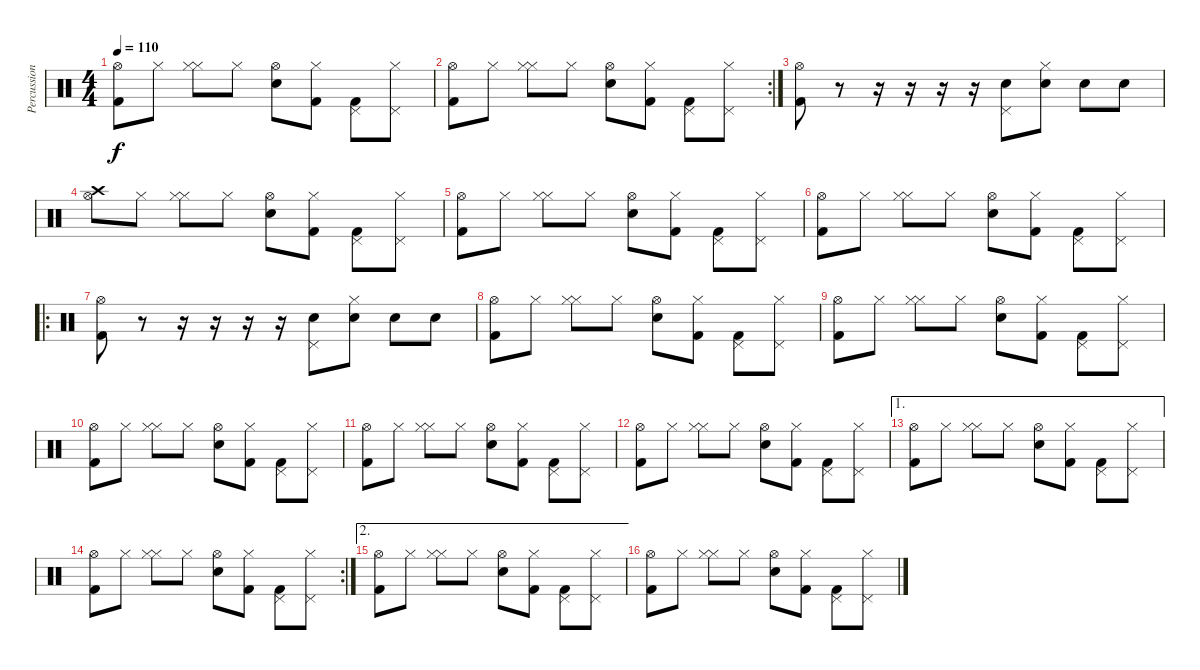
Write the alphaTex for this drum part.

\track ("Percussion" "Percussion") {instrument percussion}
\staff {score}
\articulation defaults
\ts (4 4)
\tempo 110
\clef neutral
\ks c
("Kick (hit) 2" "Hi-Hat (open)").8{dy f} "Hi-Hat (closed)".8 ("Hi-Hat (closed)" "Hi-Hat (closed)").8 "Hi-Hat (closed)".8 ("Snare (hit) 2" "Hi-Hat (open)").8 ("Kick (hit) 2" "Hi-Hat (closed)").8 ("Kick (hit) 2" "Pedal Hi-Hat (hit)").8 ("Pedal Hi-Hat (hit)" "Hi-Hat (closed)").8 |
\rc 2
("Kick (hit) 2" "Hi-Hat (open)").8 "Hi-Hat (closed)".8 ("Hi-Hat (closed)" "Hi-Hat (closed)").8 "Hi-Hat (closed)".8 ("Snare (hit) 2" "Hi-Hat (open)").8 ("Kick (hit) 2" "Hi-Hat (closed)").8 ("Kick (hit) 2" "Pedal Hi-Hat (hit)").8 ("Pedal Hi-Hat (hit)" "Hi-Hat (closed)").8 |
("Kick (hit) 2" "Hi-Hat (open)").8 r.8 r.16 r.16 r.16 r.16 ("Snare (hit) 2" "Pedal Hi-Hat (hit)").8 ("Snare (hit) 2" "Hi-Hat (closed)").8 "Snare (hit) 2".8 "Snare (hit) 2".8 |
("Crash high (hit)" "Hi-Hat (open)").8 "Hi-Hat (closed)".8 ("Hi-Hat (closed)" "Hi-Hat (closed)").8 "Hi-Hat (closed)".8 ("Snare (hit) 2" "Hi-Hat (open)").8 ("Kick (hit) 2" "Hi-Hat (closed)").8 ("Kick (hit) 2" "Pedal Hi-Hat (hit)").8 ("Pedal Hi-Hat (hit)" "Hi-Hat (closed)").8 |
("Kick (hit) 2" "Hi-Hat (open)").8 "Hi-Hat (closed)".8 ("Hi-Hat (closed)" "Hi-Hat (closed)").8 "Hi-Hat (closed)".8 ("Snare (hit) 2" "Hi-Hat (open)").8 ("Kick (hit) 2" "Hi-Hat (closed)").8 ("Kick (hit) 2" "Pedal Hi-Hat (hit)").8 ("Pedal Hi-Hat (hit)" "Hi-Hat (closed)").8 |
("Kick (hit) 2" "Hi-Hat (open)").8 "Hi-Hat (closed)".8 ("Hi-Hat (closed)" "Hi-Hat (closed)").8 "Hi-Hat (closed)".8 ("Snare (hit) 2" "Hi-Hat (open)").8 ("Kick (hit) 2" "Hi-Hat (closed)").8 ("Kick (hit) 2" "Pedal Hi-Hat (hit)").8 ("Pedal Hi-Hat (hit)" "Hi-Hat (closed)").8 |
\ro
("Kick (hit) 2" "Hi-Hat (open)").8 r.8 r.16 r.16 r.16 r.16 ("Snare (hit) 2" "Pedal Hi-Hat (hit)").8 ("Snare (hit) 2" "Hi-Hat (closed)").8 "Snare (hit) 2".8 "Snare (hit) 2".8 |
("Kick (hit) 2" "Hi-Hat (open)").8 "Hi-Hat (closed)".8 ("Hi-Hat (closed)" "Hi-Hat (closed)").8 "Hi-Hat (closed)".8 ("Snare (hit) 2" "Hi-Hat (open)").8 ("Kick (hit) 2" "Hi-Hat (closed)").8 ("Kick (hit) 2" "Pedal Hi-Hat (hit)").8 ("Pedal Hi-Hat (hit)" "Hi-Hat (closed)").8 |
("Kick (hit) 2" "Hi-Hat (open)").8 "Hi-Hat (closed)".8 ("Hi-Hat (closed)" "Hi-Hat (closed)").8 "Hi-Hat (closed)".8 ("Snare (hit) 2" "Hi-Hat (open)").8 ("Kick (hit) 2" "Hi-Hat (closed)").8 ("Kick (hit) 2" "Pedal Hi-Hat (hit)").8 ("Pedal Hi-Hat (hit)" "Hi-Hat (closed)").8 |
("Kick (hit) 2" "Hi-Hat (open)").8 "Hi-Hat (closed)".8 ("Hi-Hat (closed)" "Hi-Hat (closed)").8 "Hi-Hat (closed)".8 ("Snare (hit) 2" "Hi-Hat (open)").8 ("Kick (hit) 2" "Hi-Hat (closed)").8 ("Kick (hit) 2" "Pedal Hi-Hat (hit)").8 ("Pedal Hi-Hat (hit)" "Hi-Hat (closed)").8 |
("Kick (hit) 2" "Hi-Hat (open)").8 "Hi-Hat (closed)".8 ("Hi-Hat (closed)" "Hi-Hat (closed)").8 "Hi-Hat (closed)".8 ("Snare (hit) 2" "Hi-Hat (open)").8 ("Kick (hit) 2" "Hi-Hat (closed)").8 ("Kick (hit) 2" "Pedal Hi-Hat (hit)").8 ("Pedal Hi-Hat (hit)" "Hi-Hat (closed)").8 |
("Kick (hit) 2" "Hi-Hat (open)").8 "Hi-Hat (closed)".8 ("Hi-Hat (closed)" "Hi-Hat (closed)").8 "Hi-Hat (closed)".8 ("Snare (hit) 2" "Hi-Hat (open)").8 ("Kick (hit) 2" "Hi-Hat (closed)").8 ("Kick (hit) 2" "Pedal Hi-Hat (hit)").8 ("Pedal Hi-Hat (hit)" "Hi-Hat (closed)").8 |
\ae 1
("Kick (hit) 2" "Hi-Hat (open)").8 "Hi-Hat (closed)".8 ("Hi-Hat (closed)" "Hi-Hat (closed)").8 "Hi-Hat (closed)".8 ("Snare (hit) 2" "Hi-Hat (open)").8 ("Kick (hit) 2" "Hi-Hat (closed)").8 ("Kick (hit) 2" "Pedal Hi-Hat (hit)").8 ("Pedal Hi-Hat (hit)" "Hi-Hat (closed)").8 |
\rc 2
("Kick (hit) 2" "Hi-Hat (open)").8 "Hi-Hat (closed)".8 ("Hi-Hat (closed)" "Hi-Hat (closed)").8 "Hi-Hat (closed)".8 ("Snare (hit) 2" "Hi-Hat (open)").8 ("Kick (hit) 2" "Hi-Hat (closed)").8 ("Kick (hit) 2" "Pedal Hi-Hat (hit)").8 ("Pedal Hi-Hat (hit)" "Hi-Hat (closed)").8 |
\ae 2
("Kick (hit) 2" "Hi-Hat (open)").8 "Hi-Hat (closed)".8 ("Hi-Hat (closed)" "Hi-Hat (closed)").8 "Hi-Hat (closed)".8 ("Snare (hit) 2" "Hi-Hat (open)").8 ("Kick (hit) 2" "Hi-Hat (closed)").8 ("Kick (hit) 2" "Pedal Hi-Hat (hit)").8 ("Pedal Hi-Hat (hit)" "Hi-Hat (closed)").8 |
("Kick (hit) 2" "Hi-Hat (open)").8 "Hi-Hat (closed)".8 ("Hi-Hat (closed)" "Hi-Hat (closed)").8 "Hi-Hat (closed)".8 ("Snare (hit) 2" "Hi-Hat (open)").8 ("Kick (hit) 2" "Hi-Hat (closed)").8 ("Kick (hit) 2" "Pedal Hi-Hat (hit)").8 ("Pedal Hi-Hat (hit)" "Hi-Hat (closed)").8
